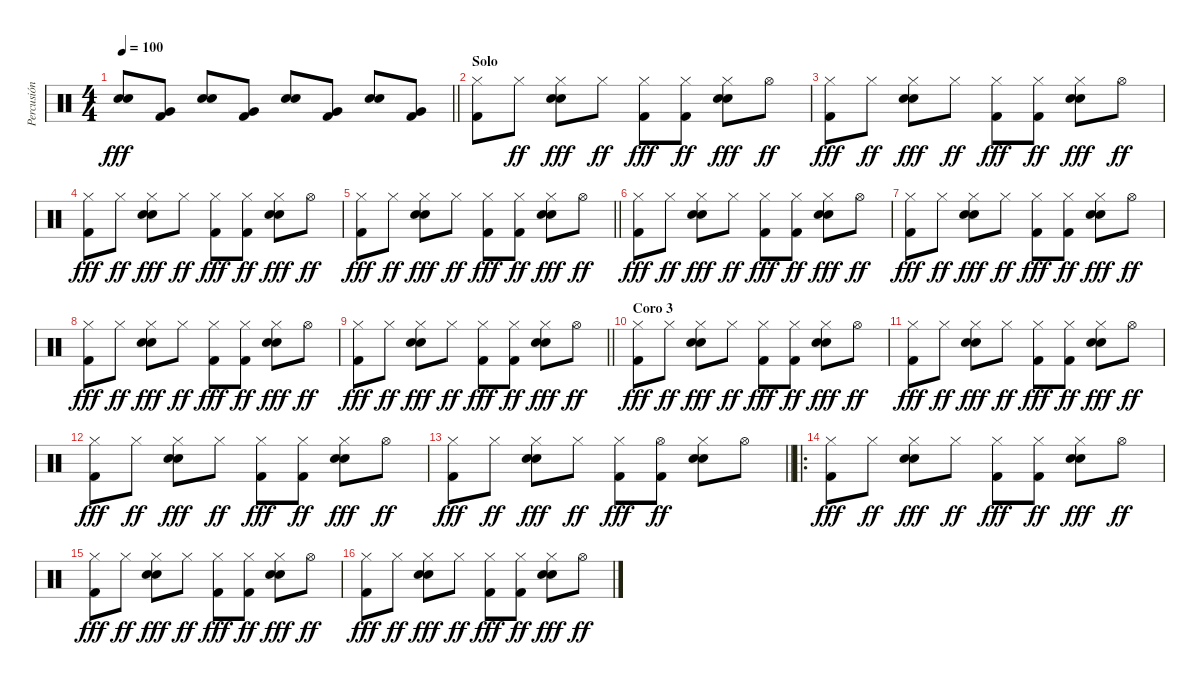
\track ("Percusión" "Percusión") {instrument percussion}
\staff {score}
\articulation defaults
\ts (4 4)
\tempo 100
\clef neutral
\barLineRight lightlight
\ks c
("Electric Snare (hit)" "Electric Snare (hit)").8{dy fff} ("Very Low Tom (hit)" "Kick (hit) 2").8 ("Electric Snare (hit)" "Electric Snare (hit)").8 ("Very Low Tom (hit)" "Kick (hit) 2").8 ("Electric Snare (hit)" "Electric Snare (hit)").8 ("Very Low Tom (hit)" "Kick (hit) 2").8 ("Electric Snare (hit)" "Electric Snare (hit)").8 ("Very Low Tom (hit)" "Kick (hit) 2").8 |
\section ("" "Solo")
("Hi-Hat (closed)" "Kick (hit) 2").8 "Hi-Hat (closed)".8{dy ff} ("Hi-Hat (closed)" "Electric Snare (hit)" "Electric Snare (hit)").8{dy fff} "Hi-Hat (closed)".8{dy ff} ("Hi-Hat (closed)" "Kick (hit) 2").8{dy fff} ("Hi-Hat (closed)" "Kick (hit) 2").8{dy ff} ("Hi-Hat (closed)" "Electric Snare (hit)" "Electric Snare (hit)").8{dy fff} "Hi-Hat (open)".8{dy ff} |
("Hi-Hat (closed)" "Kick (hit) 2").8{dy fff} "Hi-Hat (closed)".8{dy ff} ("Hi-Hat (closed)" "Electric Snare (hit)" "Electric Snare (hit)").8{dy fff} "Hi-Hat (closed)".8{dy ff} ("Hi-Hat (closed)" "Kick (hit) 2").8{dy fff} ("Hi-Hat (closed)" "Kick (hit) 2").8{dy ff} ("Hi-Hat (closed)" "Electric Snare (hit)" "Electric Snare (hit)").8{dy fff} "Hi-Hat (open)".8{dy ff} |
("Hi-Hat (closed)" "Kick (hit) 2").8{dy fff} "Hi-Hat (closed)".8{dy ff} ("Hi-Hat (closed)" "Electric Snare (hit)" "Electric Snare (hit)").8{dy fff} "Hi-Hat (closed)".8{dy ff} ("Hi-Hat (closed)" "Kick (hit) 2").8{dy fff} ("Hi-Hat (closed)" "Kick (hit) 2").8{dy ff} ("Hi-Hat (closed)" "Electric Snare (hit)" "Electric Snare (hit)").8{dy fff} "Hi-Hat (open)".8{dy ff} |
\barLineRight lightlight
("Hi-Hat (closed)" "Kick (hit) 2").8{dy fff} "Hi-Hat (closed)".8{dy ff} ("Hi-Hat (closed)" "Electric Snare (hit)" "Electric Snare (hit)").8{dy fff} "Hi-Hat (closed)".8{dy ff} ("Hi-Hat (closed)" "Kick (hit) 2").8{dy fff} ("Hi-Hat (closed)" "Kick (hit) 2").8{dy ff} ("Hi-Hat (closed)" "Electric Snare (hit)" "Electric Snare (hit)").8{dy fff} "Hi-Hat (open)".8{dy ff} |
("Hi-Hat (closed)" "Kick (hit) 2").8{dy fff} "Hi-Hat (closed)".8{dy ff} ("Hi-Hat (closed)" "Electric Snare (hit)" "Electric Snare (hit)").8{dy fff} "Hi-Hat (closed)".8{dy ff} ("Hi-Hat (closed)" "Kick (hit) 2").8{dy fff} ("Hi-Hat (closed)" "Kick (hit) 2").8{dy ff} ("Hi-Hat (closed)" "Electric Snare (hit)" "Electric Snare (hit)").8{dy fff} "Hi-Hat (open)".8{dy ff} |
("Hi-Hat (closed)" "Kick (hit) 2").8{dy fff} "Hi-Hat (closed)".8{dy ff} ("Hi-Hat (closed)" "Electric Snare (hit)" "Electric Snare (hit)").8{dy fff} "Hi-Hat (closed)".8{dy ff} ("Hi-Hat (closed)" "Kick (hit) 2").8{dy fff} ("Hi-Hat (closed)" "Kick (hit) 2").8{dy ff} ("Hi-Hat (closed)" "Electric Snare (hit)" "Electric Snare (hit)").8{dy fff} "Hi-Hat (open)".8{dy ff} |
("Hi-Hat (closed)" "Kick (hit) 2").8{dy fff} "Hi-Hat (closed)".8{dy ff} ("Hi-Hat (closed)" "Electric Snare (hit)" "Electric Snare (hit)").8{dy fff} "Hi-Hat (closed)".8{dy ff} ("Hi-Hat (closed)" "Kick (hit) 2").8{dy fff} ("Hi-Hat (closed)" "Kick (hit) 2").8{dy ff} ("Hi-Hat (closed)" "Electric Snare (hit)" "Electric Snare (hit)").8{dy fff} "Hi-Hat (open)".8{dy ff} |
\barLineRight lightlight
("Hi-Hat (closed)" "Kick (hit) 2").8{dy fff} "Hi-Hat (closed)".8{dy ff} ("Hi-Hat (closed)" "Electric Snare (hit)" "Electric Snare (hit)").8{dy fff} "Hi-Hat (closed)".8{dy ff} ("Hi-Hat (closed)" "Kick (hit) 2").8{dy fff} ("Hi-Hat (closed)" "Kick (hit) 2").8{dy ff} ("Hi-Hat (closed)" "Electric Snare (hit)" "Electric Snare (hit)").8{dy fff} "Hi-Hat (open)".8{dy ff} |
\section ("" "Coro 3")
("Hi-Hat (closed)" "Kick (hit) 2").8{dy fff} "Hi-Hat (closed)".8{dy ff} ("Hi-Hat (closed)" "Electric Snare (hit)" "Electric Snare (hit)").8{dy fff} "Hi-Hat (closed)".8{dy ff} ("Hi-Hat (closed)" "Kick (hit) 2").8{dy fff} ("Hi-Hat (closed)" "Kick (hit) 2").8{dy ff} ("Hi-Hat (closed)" "Electric Snare (hit)" "Electric Snare (hit)").8{dy fff} "Hi-Hat (open)".8{dy ff} |
("Hi-Hat (closed)" "Kick (hit) 2").8{dy fff} "Hi-Hat (closed)".8{dy ff} ("Hi-Hat (closed)" "Electric Snare (hit)" "Electric Snare (hit)").8{dy fff} "Hi-Hat (closed)".8{dy ff} ("Hi-Hat (closed)" "Kick (hit) 2").8{dy fff} ("Hi-Hat (closed)" "Kick (hit) 2").8{dy ff} ("Hi-Hat (closed)" "Electric Snare (hit)" "Electric Snare (hit)").8{dy fff} "Hi-Hat (open)".8{dy ff} |
("Hi-Hat (closed)" "Kick (hit) 2").8{dy fff} "Hi-Hat (closed)".8{dy ff} ("Hi-Hat (closed)" "Electric Snare (hit)" "Electric Snare (hit)").8{dy fff} "Hi-Hat (closed)".8{dy ff} ("Hi-Hat (closed)" "Kick (hit) 2").8{dy fff} ("Hi-Hat (closed)" "Kick (hit) 2").8{dy ff} ("Hi-Hat (closed)" "Electric Snare (hit)" "Electric Snare (hit)").8{dy fff} "Hi-Hat (open)".8{dy ff} |
\barLineRight lightlight
("Hi-Hat (closed)" "Kick (hit) 2").8{dy fff} "Hi-Hat (closed)".8{dy ff} ("Hi-Hat (closed)" "Electric Snare (hit)" "Electric Snare (hit)").8{dy fff} "Hi-Hat (closed)".8{dy ff} ("Hi-Hat (closed)" "Kick (hit) 2").8{dy fff} ("Hi-Hat (open)" "Kick (hit) 2").8{dy ff} ("Hi-Hat (closed)" "Electric Snare (hit)" "Electric Snare (hit)").8 "Hi-Hat (open)".8 |
\ro
("Hi-Hat (closed)" "Kick (hit) 2").8{dy fff} "Hi-Hat (closed)".8{dy ff} ("Hi-Hat (closed)" "Electric Snare (hit)" "Electric Snare (hit)").8{dy fff} "Hi-Hat (closed)".8{dy ff} ("Hi-Hat (closed)" "Kick (hit) 2").8{dy fff} ("Hi-Hat (closed)" "Kick (hit) 2").8{dy ff} ("Hi-Hat (closed)" "Electric Snare (hit)" "Electric Snare (hit)").8{dy fff} "Hi-Hat (open)".8{dy ff} |
("Hi-Hat (closed)" "Kick (hit) 2").8{dy fff} "Hi-Hat (closed)".8{dy ff} ("Hi-Hat (closed)" "Electric Snare (hit)" "Electric Snare (hit)").8{dy fff} "Hi-Hat (closed)".8{dy ff} ("Hi-Hat (closed)" "Kick (hit) 2").8{dy fff} ("Hi-Hat (closed)" "Kick (hit) 2").8{dy ff} ("Hi-Hat (closed)" "Electric Snare (hit)" "Electric Snare (hit)").8{dy fff} "Hi-Hat (open)".8{dy ff} |
("Hi-Hat (closed)" "Kick (hit) 2").8{dy fff} "Hi-Hat (closed)".8{dy ff} ("Hi-Hat (closed)" "Electric Snare (hit)" "Electric Snare (hit)").8{dy fff} "Hi-Hat (closed)".8{dy ff} ("Hi-Hat (closed)" "Kick (hit) 2").8{dy fff} ("Hi-Hat (closed)" "Kick (hit) 2").8{dy ff} ("Hi-Hat (closed)" "Electric Snare (hit)" "Electric Snare (hit)").8{dy fff} "Hi-Hat (open)".8{dy ff}
